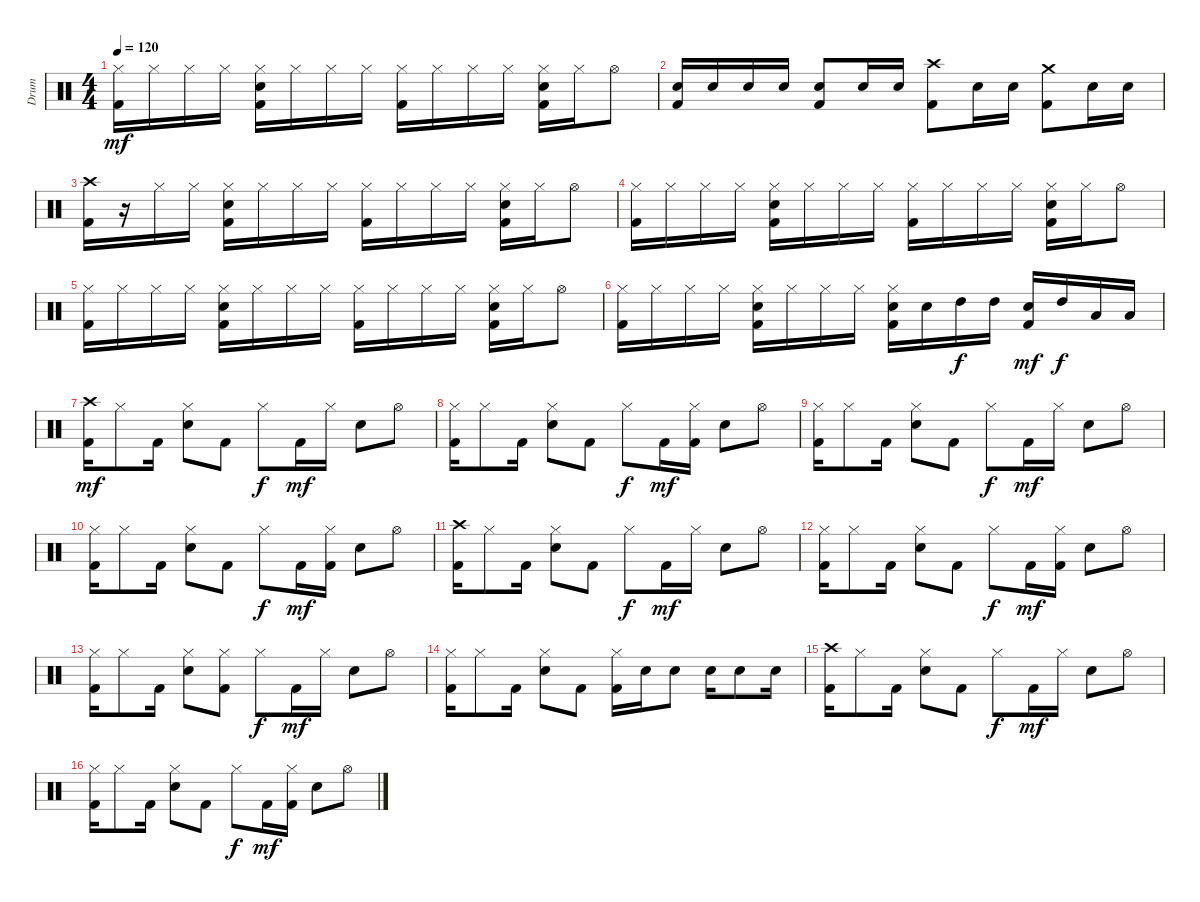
\track ("Drum" "Drum") {instrument percussion}
\staff {score}
\articulation defaults
\ts (4 4)
\tempo 120
\clef neutral
\ks c
("Hi-Hat (closed)" "Kick (hit) 2").16{dy mf} "Hi-Hat (closed)".16 "Hi-Hat (closed)".16 "Hi-Hat (closed)".16 ("Hi-Hat (closed)" "Snare (hit) 2" "Kick (hit) 2").16 "Hi-Hat (closed)".16 "Hi-Hat (closed)".16 "Hi-Hat (closed)".16 ("Hi-Hat (closed)" "Kick (hit) 2").16 "Hi-Hat (closed)".16 "Hi-Hat (closed)".16 "Hi-Hat (closed)".16 ("Hi-Hat (closed)" "Snare (hit) 2" "Kick (hit) 2").16 "Hi-Hat (closed)".16 "Hi-Hat (open)".8 |
("Snare (hit) 2" "Kick (hit) 2").16 "Snare (hit) 2".16 "Snare (hit) 2".16 "Snare (hit) 2".16 ("Snare (hit) 2" "Kick (hit) 2").8 "Snare (hit) 2".16 "Snare (hit) 2".16 ("Crash high (hit)" "Kick (hit) 2").8 "Snare (hit) 2".16 "Snare (hit) 2".16 ("Crash medium (hit)" "Kick (hit) 2").8 "Snare (hit) 2".16 "Snare (hit) 2".16 |
("Crash high (hit)" "Kick (hit) 2").16 r.16 "Hi-Hat (closed)".16 "Hi-Hat (closed)".16 ("Hi-Hat (closed)" "Snare (hit) 2" "Kick (hit) 2").16 "Hi-Hat (closed)".16 "Hi-Hat (closed)".16 "Hi-Hat (closed)".16 ("Hi-Hat (closed)" "Kick (hit) 2").16 "Hi-Hat (closed)".16 "Hi-Hat (closed)".16 "Hi-Hat (closed)".16 ("Hi-Hat (closed)" "Snare (hit) 2" "Kick (hit) 2").16 "Hi-Hat (closed)".16 "Hi-Hat (open)".8 |
("Hi-Hat (closed)" "Kick (hit) 2").16 "Hi-Hat (closed)".16 "Hi-Hat (closed)".16 "Hi-Hat (closed)".16 ("Hi-Hat (closed)" "Snare (hit) 2" "Kick (hit) 2").16 "Hi-Hat (closed)".16 "Hi-Hat (closed)".16 "Hi-Hat (closed)".16 ("Hi-Hat (closed)" "Kick (hit) 2").16 "Hi-Hat (closed)".16 "Hi-Hat (closed)".16 "Hi-Hat (closed)".16 ("Hi-Hat (closed)" "Snare (hit) 2" "Kick (hit) 2").16 "Hi-Hat (closed)".16 "Hi-Hat (open)".8 |
("Hi-Hat (closed)" "Kick (hit) 2").16 "Hi-Hat (closed)".16 "Hi-Hat (closed)".16 "Hi-Hat (closed)".16 ("Hi-Hat (closed)" "Snare (hit) 2" "Kick (hit) 2").16 "Hi-Hat (closed)".16 "Hi-Hat (closed)".16 "Hi-Hat (closed)".16 ("Hi-Hat (closed)" "Kick (hit) 2").16 "Hi-Hat (closed)".16 "Hi-Hat (closed)".16 "Hi-Hat (closed)".16 ("Hi-Hat (closed)" "Snare (hit) 2" "Kick (hit) 2").16 "Hi-Hat (closed)".16 "Hi-Hat (open)".8 |
("Hi-Hat (closed)" "Kick (hit) 2").16 "Hi-Hat (closed)".16 "Hi-Hat (closed)".16 "Hi-Hat (closed)".16 ("Hi-Hat (closed)" "Snare (hit) 2" "Kick (hit) 2").16 "Hi-Hat (closed)".16 "Hi-Hat (closed)".16 "Hi-Hat (closed)".16 ("Hi-Hat (closed)" "Snare (hit) 2" "Kick (hit) 2").16 "Snare (hit) 2".16 "High Tom (hit)".16{dy f} "High Tom (hit)".16 ("Snare (hit) 2" "Kick (hit) 2").16{dy mf} "High Tom (hit)".16{dy f} "Low Tom (hit)".16 "Low Floor Tom (hit)".16 |
("Crash high (hit)" "Kick (hit) 2").16{dy mf} "Hi-Hat (closed)".8 "Kick (hit) 2".16 ("Hi-Hat (closed)" "Snare (hit) 2").8 "Kick (hit) 2".8 "Hi-Hat (closed)".8{dy f} "Kick (hit) 2".16{dy mf} "Hi-Hat (closed)".16 "Snare (hit) 2".8 "Hi-Hat (open)".8 |
("Hi-Hat (closed)" "Kick (hit) 2").16 "Hi-Hat (closed)".8 "Kick (hit) 2".16 ("Hi-Hat (closed)" "Snare (hit) 2").8 "Kick (hit) 2".8 "Hi-Hat (closed)".8{dy f} "Kick (hit) 2".16{dy mf} ("Hi-Hat (closed)" "Kick (hit) 2").16 "Snare (hit) 2".8 "Hi-Hat (open)".8 |
("Hi-Hat (closed)" "Kick (hit) 2").16 "Hi-Hat (closed)".8 "Kick (hit) 2".16 ("Hi-Hat (closed)" "Snare (hit) 2").8 "Kick (hit) 2".8 "Hi-Hat (closed)".8{dy f} "Kick (hit) 2".16{dy mf} "Hi-Hat (closed)".16 "Snare (hit) 2".8 "Hi-Hat (open)".8 |
("Hi-Hat (closed)" "Kick (hit) 2").16 "Hi-Hat (closed)".8 "Kick (hit) 2".16 ("Hi-Hat (closed)" "Snare (hit) 2").8 "Kick (hit) 2".8 "Hi-Hat (closed)".8{dy f} "Kick (hit) 2".16{dy mf} ("Hi-Hat (closed)" "Kick (hit) 2").16 "Snare (hit) 2".8 "Hi-Hat (open)".8 |
("Crash high (hit)" "Kick (hit) 2").16 "Hi-Hat (closed)".8 "Kick (hit) 2".16 ("Hi-Hat (closed)" "Snare (hit) 2").8 "Kick (hit) 2".8 "Hi-Hat (closed)".8{dy f} "Kick (hit) 2".16{dy mf} "Hi-Hat (closed)".16 "Snare (hit) 2".8 "Hi-Hat (open)".8 |
("Hi-Hat (closed)" "Kick (hit) 2").16 "Hi-Hat (closed)".8 "Kick (hit) 2".16 ("Hi-Hat (closed)" "Snare (hit) 2").8 "Kick (hit) 2".8 "Hi-Hat (closed)".8{dy f} "Kick (hit) 2".16{dy mf} ("Hi-Hat (closed)" "Kick (hit) 2").16 "Snare (hit) 2".8 "Hi-Hat (open)".8 |
("Hi-Hat (closed)" "Kick (hit) 2").16 "Hi-Hat (closed)".8 "Kick (hit) 2".16 ("Hi-Hat (closed)" "Snare (hit) 2").8 ("Hi-Hat (closed)" "Kick (hit) 2").8 "Hi-Hat (closed)".8{dy f} "Kick (hit) 2".16{dy mf} "Hi-Hat (closed)".16 "Snare (hit) 2".8 "Hi-Hat (open)".8 |
("Hi-Hat (closed)" "Kick (hit) 2").16 "Hi-Hat (closed)".8 "Kick (hit) 2".16 ("Hi-Hat (closed)" "Snare (hit) 2").8 "Kick (hit) 2".8 ("Hi-Hat (closed)" "Kick (hit) 2").16 "Snare (hit) 2".16 "Snare (hit) 2".8 "Snare (hit) 2".16 "Snare (hit) 2".8 "Snare (hit) 2".16 |
("Crash high (hit)" "Kick (hit) 2").16 "Hi-Hat (closed)".8 "Kick (hit) 2".16 ("Hi-Hat (closed)" "Snare (hit) 2").8 "Kick (hit) 2".8 "Hi-Hat (closed)".8{dy f} "Kick (hit) 2".16{dy mf} "Hi-Hat (closed)".16 "Snare (hit) 2".8 "Hi-Hat (open)".8 |
("Hi-Hat (closed)" "Kick (hit) 2").16 "Hi-Hat (closed)".8 "Kick (hit) 2".16 ("Hi-Hat (closed)" "Snare (hit) 2").8 "Kick (hit) 2".8 "Hi-Hat (closed)".8{dy f} "Kick (hit) 2".16{dy mf} ("Hi-Hat (closed)" "Kick (hit) 2").16 "Snare (hit) 2".8 "Hi-Hat (open)".8
